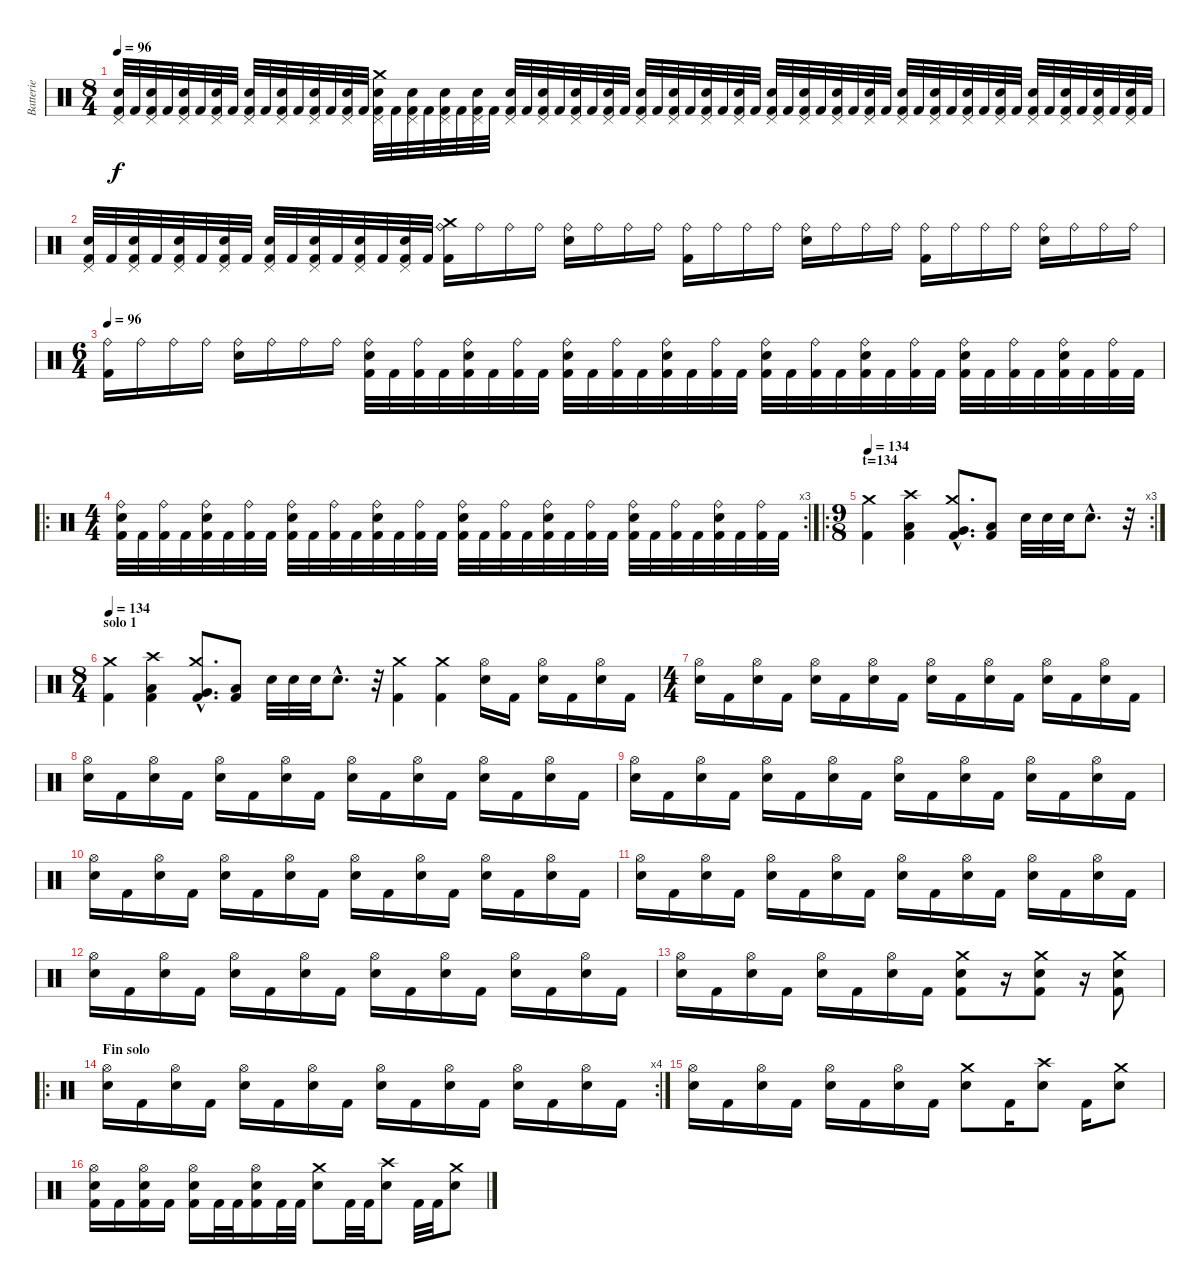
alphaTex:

\track ("Batterie" "Batterie") {instrument percussion}
\staff {score}
\articulation defaults
\ts (8 4)
\tempo 96
\clef neutral
\ks c
("Pedal Hi-Hat (hit)" "Electric Snare (hit)" "Kick (hit) 2").32{dy f} "Kick (hit) 2".32 ("Pedal Hi-Hat (hit)" "Electric Snare (hit)" "Kick (hit) 2").32 "Kick (hit) 2".32 ("Pedal Hi-Hat (hit)" "Electric Snare (hit)" "Kick (hit) 2").32 "Kick (hit) 2".32 ("Pedal Hi-Hat (hit)" "Electric Snare (hit)" "Kick (hit) 2").32 "Kick (hit) 2".32 ("Pedal Hi-Hat (hit)" "Electric Snare (hit)" "Kick (hit) 2").32 "Kick (hit) 2".32 ("Pedal Hi-Hat (hit)" "Electric Snare (hit)" "Kick (hit) 2").32 "Kick (hit) 2".32 ("Pedal Hi-Hat (hit)" "Electric Snare (hit)" "Kick (hit) 2").32 "Kick (hit) 2".32 ("Pedal Hi-Hat (hit)" "Electric Snare (hit)" "Kick (hit) 2").32 "Kick (hit) 2".32 ("Crash medium (hit)" "Pedal Hi-Hat (hit)" "Electric Snare (hit)" "Kick (hit) 2").32 "Kick (hit) 2".32 ("Pedal Hi-Hat (hit)" "Electric Snare (hit)" "Kick (hit) 2").32 "Kick (hit) 2".32 ("Pedal Hi-Hat (hit)" "Electric Snare (hit)" "Kick (hit) 2").32 "Kick (hit) 2".32 ("Pedal Hi-Hat (hit)" "Electric Snare (hit)" "Kick (hit) 2").32 "Kick (hit) 2".32 ("Pedal Hi-Hat (hit)" "Electric Snare (hit)" "Kick (hit) 2").32 "Kick (hit) 2".32 ("Pedal Hi-Hat (hit)" "Electric Snare (hit)" "Kick (hit) 2").32 "Kick (hit) 2".32 ("Pedal Hi-Hat (hit)" "Electric Snare (hit)" "Kick (hit) 2").32 "Kick (hit) 2".32 ("Pedal Hi-Hat (hit)" "Electric Snare (hit)" "Kick (hit) 2").32 "Kick (hit) 2".32 ("Pedal Hi-Hat (hit)" "Electric Snare (hit)" "Kick (hit) 2").32 "Kick (hit) 2".32 ("Pedal Hi-Hat (hit)" "Electric Snare (hit)" "Kick (hit) 2").32 "Kick (hit) 2".32 ("Pedal Hi-Hat (hit)" "Electric Snare (hit)" "Kick (hit) 2").32 "Kick (hit) 2".32 ("Pedal Hi-Hat (hit)" "Electric Snare (hit)" "Kick (hit) 2").32 "Kick (hit) 2".32 ("Pedal Hi-Hat (hit)" "Electric Snare (hit)" "Kick (hit) 2").32 "Kick (hit) 2".32 ("Pedal Hi-Hat (hit)" "Electric Snare (hit)" "Kick (hit) 2").32 "Kick (hit) 2".32 ("Pedal Hi-Hat (hit)" "Electric Snare (hit)" "Kick (hit) 2").32 "Kick (hit) 2".32 ("Pedal Hi-Hat (hit)" "Electric Snare (hit)" "Kick (hit) 2").32 "Kick (hit) 2".32 ("Pedal Hi-Hat (hit)" "Electric Snare (hit)" "Kick (hit) 2").32 "Kick (hit) 2".32 ("Pedal Hi-Hat (hit)" "Electric Snare (hit)" "Kick (hit) 2").32 "Kick (hit) 2".32 ("Pedal Hi-Hat (hit)" "Electric Snare (hit)" "Kick (hit) 2").32 "Kick (hit) 2".32 ("Pedal Hi-Hat (hit)" "Electric Snare (hit)" "Kick (hit) 2").32 "Kick (hit) 2".32 ("Pedal Hi-Hat (hit)" "Electric Snare (hit)" "Kick (hit) 2").32 "Kick (hit) 2".32 ("Pedal Hi-Hat (hit)" "Electric Snare (hit)" "Kick (hit) 2").32 "Kick (hit) 2".32 ("Pedal Hi-Hat (hit)" "Electric Snare (hit)" "Kick (hit) 2").32 "Kick (hit) 2".32 ("Pedal Hi-Hat (hit)" "Electric Snare (hit)" "Kick (hit) 2").32 "Kick (hit) 2".32 |
("Pedal Hi-Hat (hit)" "Electric Snare (hit)" "Kick (hit) 2").32 "Kick (hit) 2".32 ("Pedal Hi-Hat (hit)" "Electric Snare (hit)" "Kick (hit) 2").32 "Kick (hit) 2".32 ("Pedal Hi-Hat (hit)" "Electric Snare (hit)" "Kick (hit) 2").32 "Kick (hit) 2".32 ("Pedal Hi-Hat (hit)" "Electric Snare (hit)" "Kick (hit) 2").32 "Kick (hit) 2".32 ("Pedal Hi-Hat (hit)" "Electric Snare (hit)" "Kick (hit) 2").32 "Kick (hit) 2".32 ("Pedal Hi-Hat (hit)" "Electric Snare (hit)" "Kick (hit) 2").32 "Kick (hit) 2".32 ("Pedal Hi-Hat (hit)" "Electric Snare (hit)" "Kick (hit) 2").32 "Kick (hit) 2".32 ("Pedal Hi-Hat (hit)" "Electric Snare (hit)" "Kick (hit) 2").32 "Kick (hit) 2".32 ("Crash medium (hit)" "Ride (bell)" "Kick (hit) 2").16 "Ride (bell)".16 "Ride (bell)".16 "Ride (bell)".16 ("Ride (bell)" "Electric Snare (hit)").16 "Ride (bell)".16 "Ride (bell)".16 "Ride (bell)".16 ("Ride (bell)" "Kick (hit) 2").16 "Ride (bell)".16 "Ride (bell)".16 "Ride (bell)".16 ("Ride (bell)" "Electric Snare (hit)").16 "Ride (bell)".16 "Ride (bell)".16 "Ride (bell)".16 ("Ride (bell)" "Kick (hit) 2").16 "Ride (bell)".16 "Ride (bell)".16 "Ride (bell)".16 ("Ride (bell)" "Electric Snare (hit)").16 "Ride (bell)".16 "Ride (bell)".16 "Ride (bell)".16 |
\ts (6 4)
\tempo 96
("Ride (bell)" "Kick (hit) 2").16 "Ride (bell)".16 "Ride (bell)".16 "Ride (bell)".16 ("Ride (bell)" "Electric Snare (hit)").16 "Ride (bell)".16 "Ride (bell)".16 "Ride (bell)".16 ("Ride (bell)" "Electric Snare (hit)" "Kick (hit) 2").32 "Kick (hit) 2".32 ("Ride (bell)" "Kick (hit) 2").32 "Kick (hit) 2".32 ("Ride (bell)" "Electric Snare (hit)" "Kick (hit) 2").32 "Kick (hit) 2".32 ("Ride (bell)" "Kick (hit) 2").32 "Kick (hit) 2".32 ("Ride (bell)" "Electric Snare (hit)" "Kick (hit) 2").32 "Kick (hit) 2".32 ("Ride (bell)" "Kick (hit) 2").32 "Kick (hit) 2".32 ("Ride (bell)" "Electric Snare (hit)" "Kick (hit) 2").32 "Kick (hit) 2".32 ("Ride (bell)" "Kick (hit) 2").32 "Kick (hit) 2".32 ("Ride (bell)" "Electric Snare (hit)" "Kick (hit) 2").32 "Kick (hit) 2".32 ("Ride (bell)" "Kick (hit) 2").32 "Kick (hit) 2".32 ("Ride (bell)" "Electric Snare (hit)" "Kick (hit) 2").32 "Kick (hit) 2".32 ("Ride (bell)" "Kick (hit) 2").32 "Kick (hit) 2".32 ("Ride (bell)" "Electric Snare (hit)" "Kick (hit) 2").32 "Kick (hit) 2".32 ("Ride (bell)" "Kick (hit) 2").32 "Kick (hit) 2".32 ("Ride (bell)" "Electric Snare (hit)" "Kick (hit) 2").32 "Kick (hit) 2".32 ("Ride (bell)" "Kick (hit) 2").32 "Kick (hit) 2".32 |
\ro
\rc 3
\ts (4 4)
("Ride (bell)" "Electric Snare (hit)" "Kick (hit) 2").32 "Kick (hit) 2".32 ("Ride (bell)" "Kick (hit) 2").32 "Kick (hit) 2".32 ("Ride (bell)" "Electric Snare (hit)" "Kick (hit) 2").32 "Kick (hit) 2".32 ("Ride (bell)" "Kick (hit) 2").32 "Kick (hit) 2".32 ("Ride (bell)" "Electric Snare (hit)" "Kick (hit) 2").32 "Kick (hit) 2".32 ("Ride (bell)" "Kick (hit) 2").32 "Kick (hit) 2".32 ("Ride (bell)" "Electric Snare (hit)" "Kick (hit) 2").32 "Kick (hit) 2".32 ("Ride (bell)" "Kick (hit) 2").32 "Kick (hit) 2".32 ("Ride (bell)" "Electric Snare (hit)" "Kick (hit) 2").32 "Kick (hit) 2".32 ("Ride (bell)" "Kick (hit) 2").32 "Kick (hit) 2".32 ("Ride (bell)" "Electric Snare (hit)" "Kick (hit) 2").32 "Kick (hit) 2".32 ("Ride (bell)" "Kick (hit) 2").32 "Kick (hit) 2".32 ("Ride (bell)" "Electric Snare (hit)" "Kick (hit) 2").32 "Kick (hit) 2".32 ("Ride (bell)" "Kick (hit) 2").32 "Kick (hit) 2".32 ("Ride (bell)" "Electric Snare (hit)" "Kick (hit) 2").32 "Kick (hit) 2".32 ("Ride (bell)" "Kick (hit) 2").32 "Kick (hit) 2".32 |
\ro
\rc 3
\ts (9 8)
\section ("" "t=134")
\tempo 134
("Crash medium (hit)" "Kick (hit) 2").4 ("Low Tom (hit)" "Crash high (hit)" "Kick (hit) 2").4 ("Very Low Tom (hit)"{hac} "Crash medium (hit)"{hac} "Kick (hit) 2"{hac}).8{d} ("Low Floor Tom (hit)" "Kick (hit) 2").8 "Electric Snare (hit)".32 "Electric Snare (hit)".32 "Electric Snare (hit)".32 "Electric Snare (hit)"{hac}.8{d} r.32 |
\ts (8 4)
\section ("" "solo 1")
\tempo 134
("Crash medium (hit)" "Kick (hit) 2").4 ("Low Tom (hit)" "Crash high (hit)" "Kick (hit) 2").4 ("Very Low Tom (hit)"{hac} "Crash medium (hit)"{hac} "Kick (hit) 2"{hac}).8{d} ("Low Floor Tom (hit)" "Kick (hit) 2").8 "Electric Snare (hit)".32 "Electric Snare (hit)".32 "Electric Snare (hit)".32 "Electric Snare (hit)"{hac}.8{d} r.32 ("Crash medium (hit)" "Kick (hit) 2").4 ("Crash medium (hit)" "Kick (hit) 2").4 ("Hi-Hat (open)" "Electric Snare (hit)").16 "Kick (hit) 2".16 ("Hi-Hat (open)" "Electric Snare (hit)").16 "Kick (hit) 2".16 ("Hi-Hat (open)" "Electric Snare (hit)").16 "Kick (hit) 2".16 |
\ts (4 4)
("Hi-Hat (open)" "Electric Snare (hit)").16 "Kick (hit) 2".16 ("Hi-Hat (open)" "Electric Snare (hit)").16 "Kick (hit) 2".16 ("Hi-Hat (open)" "Electric Snare (hit)").16 "Kick (hit) 2".16 ("Hi-Hat (open)" "Electric Snare (hit)").16 "Kick (hit) 2".16 ("Hi-Hat (open)" "Electric Snare (hit)").16 "Kick (hit) 2".16 ("Hi-Hat (open)" "Electric Snare (hit)").16 "Kick (hit) 2".16 ("Hi-Hat (open)" "Electric Snare (hit)").16 "Kick (hit) 2".16 ("Hi-Hat (open)" "Electric Snare (hit)").16 "Kick (hit) 2".16 |
("Hi-Hat (open)" "Electric Snare (hit)").16 "Kick (hit) 2".16 ("Hi-Hat (open)" "Electric Snare (hit)").16 "Kick (hit) 2".16 ("Hi-Hat (open)" "Electric Snare (hit)").16 "Kick (hit) 2".16 ("Hi-Hat (open)" "Electric Snare (hit)").16 "Kick (hit) 2".16 ("Hi-Hat (open)" "Electric Snare (hit)").16 "Kick (hit) 2".16 ("Hi-Hat (open)" "Electric Snare (hit)").16 "Kick (hit) 2".16 ("Hi-Hat (open)" "Electric Snare (hit)").16 "Kick (hit) 2".16 ("Hi-Hat (open)" "Electric Snare (hit)").16 "Kick (hit) 2".16 |
("Hi-Hat (open)" "Electric Snare (hit)").16 "Kick (hit) 2".16 ("Hi-Hat (open)" "Electric Snare (hit)").16 "Kick (hit) 2".16 ("Hi-Hat (open)" "Electric Snare (hit)").16 "Kick (hit) 2".16 ("Hi-Hat (open)" "Electric Snare (hit)").16 "Kick (hit) 2".16 ("Hi-Hat (open)" "Electric Snare (hit)").16 "Kick (hit) 2".16 ("Hi-Hat (open)" "Electric Snare (hit)").16 "Kick (hit) 2".16 ("Hi-Hat (open)" "Electric Snare (hit)").16 "Kick (hit) 2".16 ("Hi-Hat (open)" "Electric Snare (hit)").16 "Kick (hit) 2".16 |
("Hi-Hat (open)" "Electric Snare (hit)").16 "Kick (hit) 2".16 ("Hi-Hat (open)" "Electric Snare (hit)").16 "Kick (hit) 2".16 ("Hi-Hat (open)" "Electric Snare (hit)").16 "Kick (hit) 2".16 ("Hi-Hat (open)" "Electric Snare (hit)").16 "Kick (hit) 2".16 ("Hi-Hat (open)" "Electric Snare (hit)").16 "Kick (hit) 2".16 ("Hi-Hat (open)" "Electric Snare (hit)").16 "Kick (hit) 2".16 ("Hi-Hat (open)" "Electric Snare (hit)").16 "Kick (hit) 2".16 ("Hi-Hat (open)" "Electric Snare (hit)").16 "Kick (hit) 2".16 |
("Hi-Hat (open)" "Electric Snare (hit)").16 "Kick (hit) 2".16 ("Hi-Hat (open)" "Electric Snare (hit)").16 "Kick (hit) 2".16 ("Hi-Hat (open)" "Electric Snare (hit)").16 "Kick (hit) 2".16 ("Hi-Hat (open)" "Electric Snare (hit)").16 "Kick (hit) 2".16 ("Hi-Hat (open)" "Electric Snare (hit)").16 "Kick (hit) 2".16 ("Hi-Hat (open)" "Electric Snare (hit)").16 "Kick (hit) 2".16 ("Hi-Hat (open)" "Electric Snare (hit)").16 "Kick (hit) 2".16 ("Hi-Hat (open)" "Electric Snare (hit)").16 "Kick (hit) 2".16 |
("Hi-Hat (open)" "Electric Snare (hit)").16 "Kick (hit) 2".16 ("Hi-Hat (open)" "Electric Snare (hit)").16 "Kick (hit) 2".16 ("Hi-Hat (open)" "Electric Snare (hit)").16 "Kick (hit) 2".16 ("Hi-Hat (open)" "Electric Snare (hit)").16 "Kick (hit) 2".16 ("Hi-Hat (open)" "Electric Snare (hit)").16 "Kick (hit) 2".16 ("Hi-Hat (open)" "Electric Snare (hit)").16 "Kick (hit) 2".16 ("Hi-Hat (open)" "Electric Snare (hit)").16 "Kick (hit) 2".16 ("Hi-Hat (open)" "Electric Snare (hit)").16 "Kick (hit) 2".16 |
("Hi-Hat (open)" "Electric Snare (hit)").16 "Kick (hit) 2".16 ("Hi-Hat (open)" "Electric Snare (hit)").16 "Kick (hit) 2".16 ("Hi-Hat (open)" "Electric Snare (hit)").16 "Kick (hit) 2".16 ("Hi-Hat (open)" "Electric Snare (hit)").16 "Kick (hit) 2".16 ("Kick (hit) 2" "Crash medium (hit)" "Electric Snare (hit)").8 r.16 ("Electric Snare (hit)" "Crash medium (hit)" "Kick (hit) 2").8 r.16 ("Electric Snare (hit)" "Crash medium (hit)" "Kick (hit) 2").8 |
\ro
\rc 4
\section ("" "Fin solo")
("Hi-Hat (open)" "Electric Snare (hit)").16 "Kick (hit) 2".16 ("Hi-Hat (open)" "Electric Snare (hit)").16 "Kick (hit) 2".16 ("Hi-Hat (open)" "Electric Snare (hit)").16 "Kick (hit) 2".16 ("Hi-Hat (open)" "Electric Snare (hit)").16 "Kick (hit) 2".16 ("Hi-Hat (open)" "Electric Snare (hit)").16 "Kick (hit) 2".16 ("Hi-Hat (open)" "Electric Snare (hit)").16 "Kick (hit) 2".16 ("Hi-Hat (open)" "Electric Snare (hit)").16 "Kick (hit) 2".16 ("Hi-Hat (open)" "Electric Snare (hit)").16 "Kick (hit) 2".16 |
("Hi-Hat (open)" "Electric Snare (hit)").16 "Kick (hit) 2".16 ("Hi-Hat (open)" "Electric Snare (hit)").16 "Kick (hit) 2".16 ("Hi-Hat (open)" "Electric Snare (hit)").16 "Kick (hit) 2".16 ("Hi-Hat (open)" "Electric Snare (hit)").16 "Kick (hit) 2".16 ("Crash medium (hit)" "Electric Snare (hit)").8 "Kick (hit) 2".16 ("Crash high (hit)" "Electric Snare (hit)").8 "Kick (hit) 2".16 ("Crash medium (hit)" "Electric Snare (hit)").8 |
("Hi-Hat (open)" "Kick (hit) 2" "Electric Snare (hit)").16 "Kick (hit) 2".16 ("Hi-Hat (open)" "Kick (hit) 2" "Electric Snare (hit)").16 "Kick (hit) 2".16 ("Hi-Hat (open)" "Kick (hit) 2" "Electric Snare (hit)").16 "Kick (hit) 2".32 "Kick (hit) 2".32 ("Hi-Hat (open)" "Kick (hit) 2" "Electric Snare (hit)").16 "Kick (hit) 2".32 "Kick (hit) 2".32 ("Crash medium (hit)" "Electric Snare (hit)").8 "Kick (hit) 2".32 "Kick (hit) 2".32 ("Crash high (hit)" "Electric Snare (hit)").8 "Kick (hit) 2".32 "Kick (hit) 2".32 ("Crash medium (hit)" "Electric Snare (hit)").8
